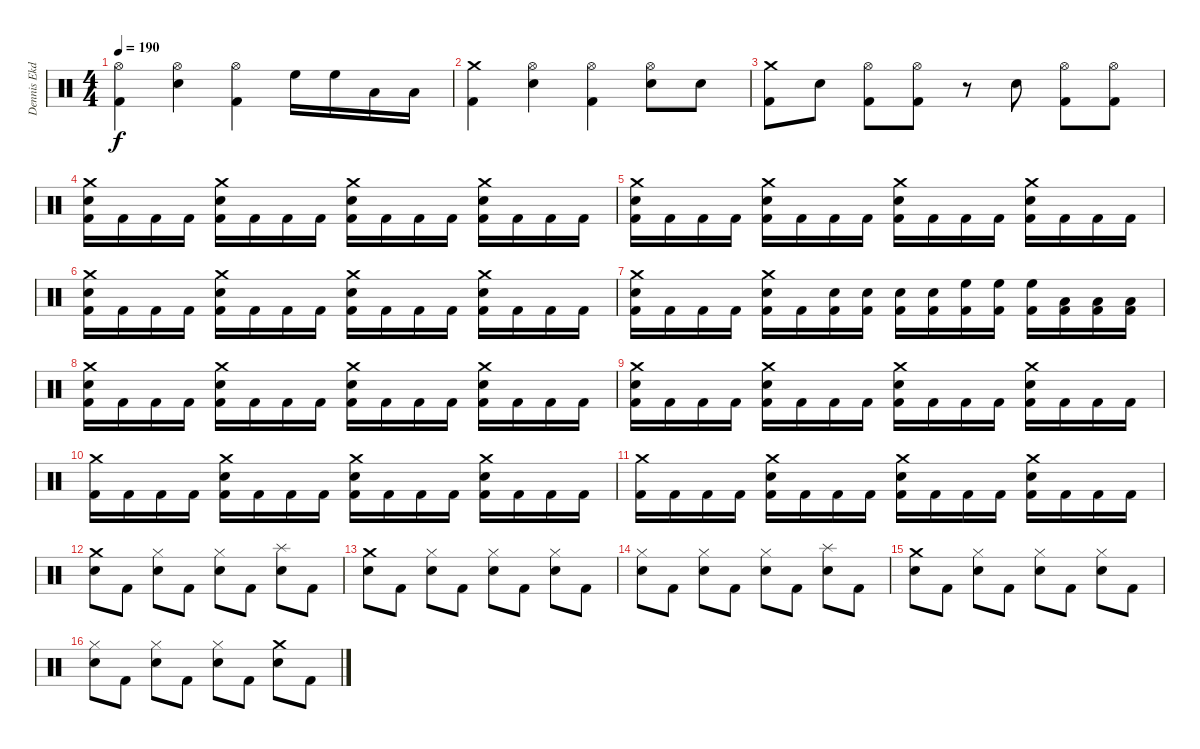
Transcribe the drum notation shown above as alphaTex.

\track ("Dennis Ekdahl" "Dennis Ekd") {instrument percussion}
\staff {score}
\articulation defaults
\ts (4 4)
\tempo 190
\clef neutral
\ks c
("Hi-Hat (open)" "Kick (hit) 2").4{dy f} ("Hi-Hat (open)" "Snare (hit) 2").4 ("Hi-Hat (open)" "Kick (hit) 2").4 "High Floor Tom (hit)".16 "High Floor Tom (hit)".16 "Low Tom (hit)".16 "Low Tom (hit)".16 |
("Crash medium (hit)" "Kick (hit) 2").4 ("Hi-Hat (open)" "Snare (hit) 2").4 ("Hi-Hat (open)" "Kick (hit) 2").4 ("Hi-Hat (open)" "Snare (hit) 2").8 "Snare (hit) 2".8 |
("Crash medium (hit)" "Kick (hit) 2").8 "Snare (hit) 2".8 ("Hi-Hat (open)" "Kick (hit) 2").8 ("Hi-Hat (open)" "Kick (hit) 2").8 r.8 "Snare (hit) 2".8 ("Hi-Hat (open)" "Kick (hit) 2").8 ("Hi-Hat (open)" "Kick (hit) 2").8 |
("Crash medium (hit)" "Snare (hit) 2" "Kick (hit) 2").16 "Kick (hit) 2".16 "Kick (hit) 2".16 "Kick (hit) 2".16 ("Crash medium (hit)" "Snare (hit) 2" "Kick (hit) 2").16 "Kick (hit) 2".16 "Kick (hit) 2".16 "Kick (hit) 2".16 ("Crash medium (hit)" "Snare (hit) 2" "Kick (hit) 2").16 "Kick (hit) 2".16 "Kick (hit) 2".16 "Kick (hit) 2".16 ("Crash medium (hit)" "Snare (hit) 2" "Kick (hit) 2").16 "Kick (hit) 2".16 "Kick (hit) 2".16 "Kick (hit) 2".16 |
("Crash medium (hit)" "Snare (hit) 2" "Kick (hit) 2").16 "Kick (hit) 2".16 "Kick (hit) 2".16 "Kick (hit) 2".16 ("Crash medium (hit)" "Snare (hit) 2" "Kick (hit) 2").16 "Kick (hit) 2".16 "Kick (hit) 2".16 "Kick (hit) 2".16 ("Crash medium (hit)" "Snare (hit) 2" "Kick (hit) 2").16 "Kick (hit) 2".16 "Kick (hit) 2".16 "Kick (hit) 2".16 ("Crash medium (hit)" "Snare (hit) 2" "Kick (hit) 2").16 "Kick (hit) 2".16 "Kick (hit) 2".16 "Kick (hit) 2".16 |
("Crash medium (hit)" "Snare (hit) 2" "Kick (hit) 2").16 "Kick (hit) 2".16 "Kick (hit) 2".16 "Kick (hit) 2".16 ("Crash medium (hit)" "Snare (hit) 2" "Kick (hit) 2").16 "Kick (hit) 2".16 "Kick (hit) 2".16 "Kick (hit) 2".16 ("Crash medium (hit)" "Snare (hit) 2" "Kick (hit) 2").16 "Kick (hit) 2".16 "Kick (hit) 2".16 "Kick (hit) 2".16 ("Crash medium (hit)" "Snare (hit) 2" "Kick (hit) 2").16 "Kick (hit) 2".16 "Kick (hit) 2".16 "Kick (hit) 2".16 |
("Crash medium (hit)" "Snare (hit) 2" "Kick (hit) 2").16 "Kick (hit) 2".16 "Kick (hit) 2".16 "Kick (hit) 2".16 ("Crash medium (hit)" "Snare (hit) 2" "Kick (hit) 2").16 "Kick (hit) 2".16 ("Snare (hit) 2" "Kick (hit) 2").16 ("Snare (hit) 2" "Kick (hit) 2").16 ("Snare (hit) 2" "Kick (hit) 2").16 ("Snare (hit) 2" "Kick (hit) 2").16 ("High Floor Tom (hit)" "Kick (hit) 2").16 ("High Floor Tom (hit)" "Kick (hit) 2").16 ("High Floor Tom (hit)" "Kick (hit) 2").16 ("Low Tom (hit)" "Kick (hit) 2").16 ("Low Tom (hit)" "Kick (hit) 2").16 ("Low Tom (hit)" "Kick (hit) 2").16 |
("Crash medium (hit)" "Snare (hit) 2" "Kick (hit) 2").16 "Kick (hit) 2".16 "Kick (hit) 2".16 "Kick (hit) 2".16 ("Crash medium (hit)" "Snare (hit) 2" "Kick (hit) 2").16 "Kick (hit) 2".16 "Kick (hit) 2".16 "Kick (hit) 2".16 ("Crash medium (hit)" "Snare (hit) 2" "Kick (hit) 2").16 "Kick (hit) 2".16 "Kick (hit) 2".16 "Kick (hit) 2".16 ("Crash medium (hit)" "Snare (hit) 2" "Kick (hit) 2").16 "Kick (hit) 2".16 "Kick (hit) 2".16 "Kick (hit) 2".16 |
("Crash medium (hit)" "Snare (hit) 2" "Kick (hit) 2").16 "Kick (hit) 2".16 "Kick (hit) 2".16 "Kick (hit) 2".16 ("Crash medium (hit)" "Snare (hit) 2" "Kick (hit) 2").16 "Kick (hit) 2".16 "Kick (hit) 2".16 "Kick (hit) 2".16 ("Crash medium (hit)" "Snare (hit) 2" "Kick (hit) 2").16 "Kick (hit) 2".16 "Kick (hit) 2".16 "Kick (hit) 2".16 ("Crash medium (hit)" "Snare (hit) 2" "Kick (hit) 2").16 "Kick (hit) 2".16 "Kick (hit) 2".16 "Kick (hit) 2".16 |
("Crash medium (hit)" "Kick (hit) 2").16 "Kick (hit) 2".16 "Kick (hit) 2".16 "Kick (hit) 2".16 ("Crash medium (hit)" "Snare (hit) 2" "Kick (hit) 2").16 "Kick (hit) 2".16 "Kick (hit) 2".16 "Kick (hit) 2".16 ("Crash medium (hit)" "Snare (hit) 2" "Kick (hit) 2").16 "Kick (hit) 2".16 "Kick (hit) 2".16 "Kick (hit) 2".16 ("Crash medium (hit)" "Snare (hit) 2" "Kick (hit) 2").16 "Kick (hit) 2".16 "Kick (hit) 2".16 "Kick (hit) 2".16 |
("Crash medium (hit)" "Kick (hit) 2").16 "Kick (hit) 2".16 "Kick (hit) 2".16 "Kick (hit) 2".16 ("Crash medium (hit)" "Snare (hit) 2" "Kick (hit) 2").16 "Kick (hit) 2".16 "Kick (hit) 2".16 "Kick (hit) 2".16 ("Crash medium (hit)" "Snare (hit) 2" "Kick (hit) 2").16 "Kick (hit) 2".16 "Kick (hit) 2".16 "Kick (hit) 2".16 ("Crash medium (hit)" "Snare (hit) 2" "Kick (hit) 2").16 "Kick (hit) 2".16 "Kick (hit) 2".16 "Kick (hit) 2".16 |
("Crash medium (hit)" "Snare (hit) 2").8 "Kick (hit) 2".8 ("Hi-Hat (closed)" "Snare (hit) 2").8 "Kick (hit) 2".8 ("Hi-Hat (closed)" "Snare (hit) 2").8 "Kick (hit) 2".8 ("Splash (hit)" "Snare (hit) 2").8 "Kick (hit) 2".8 |
("Crash medium (hit)" "Snare (hit) 2").8 "Kick (hit) 2".8 ("Hi-Hat (closed)" "Snare (hit) 2").8 "Kick (hit) 2".8 ("Hi-Hat (closed)" "Snare (hit) 2").8 "Kick (hit) 2".8 ("Hi-Hat (closed)" "Snare (hit) 2").8 "Kick (hit) 2".8 |
("Hi-Hat (closed)" "Snare (hit) 2").8 "Kick (hit) 2".8 ("Hi-Hat (closed)" "Snare (hit) 2").8 "Kick (hit) 2".8 ("Hi-Hat (closed)" "Snare (hit) 2").8 "Kick (hit) 2".8 ("Splash (hit)" "Snare (hit) 2").8 "Kick (hit) 2".8 |
("Crash medium (hit)" "Snare (hit) 2").8 "Kick (hit) 2".8 ("Hi-Hat (closed)" "Snare (hit) 2").8 "Kick (hit) 2".8 ("Hi-Hat (closed)" "Snare (hit) 2").8 "Kick (hit) 2".8 ("Hi-Hat (closed)" "Snare (hit) 2").8 "Kick (hit) 2".8 |
("Hi-Hat (closed)" "Snare (hit) 2").8 "Kick (hit) 2".8 ("Hi-Hat (closed)" "Snare (hit) 2").8 "Kick (hit) 2".8 ("Hi-Hat (closed)" "Snare (hit) 2").8 "Kick (hit) 2".8 ("Crash medium (hit)" "Snare (hit) 2").8 "Kick (hit) 2".8
